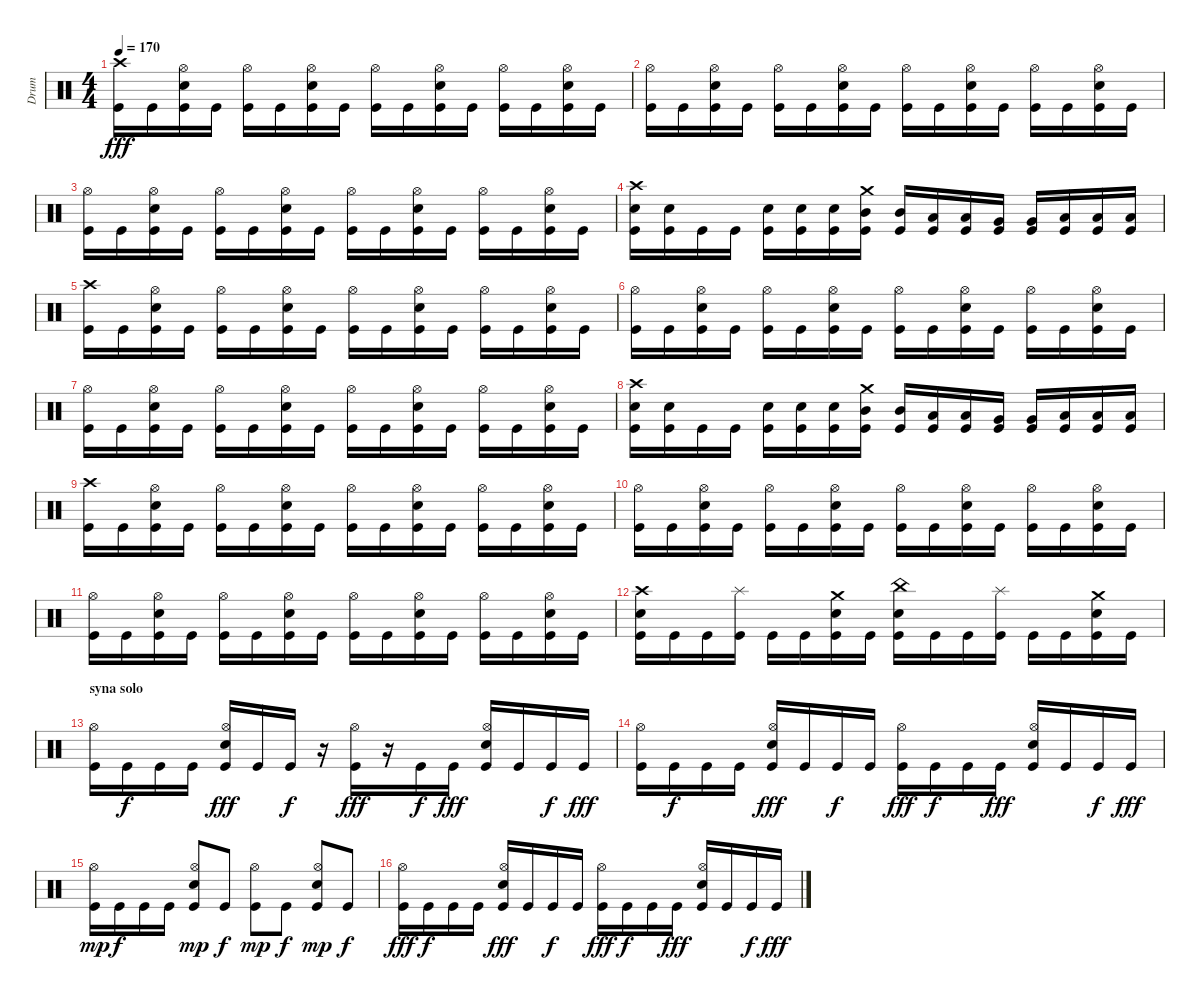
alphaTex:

\track ("Drum" "Drum") {instrument percussion}
\staff {score}
\articulation defaults
\ts (4 4)
\tempo 170
\clef neutral
\ks c
("Crash high (hit)" "Kick (hit)").16{dy fff} "Kick (hit)".16 ("Hi-Hat (open)" "Snare (hit) 2" "Kick (hit)").16 "Kick (hit)".16 ("Hi-Hat (open)" "Kick (hit)").16 "Kick (hit)".16 ("Hi-Hat (open)" "Snare (hit) 2" "Kick (hit)").16 "Kick (hit)".16 ("Hi-Hat (open)" "Kick (hit)").16 "Kick (hit)".16 ("Hi-Hat (open)" "Snare (hit) 2" "Kick (hit)").16 "Kick (hit)".16 ("Hi-Hat (open)" "Kick (hit)").16 "Kick (hit)".16 ("Hi-Hat (open)" "Snare (hit) 2" "Kick (hit)").16 "Kick (hit)".16 |
("Hi-Hat (open)" "Kick (hit)").16 "Kick (hit)".16 ("Hi-Hat (open)" "Snare (hit) 2" "Kick (hit)").16 "Kick (hit)".16 ("Hi-Hat (open)" "Kick (hit)").16 "Kick (hit)".16 ("Hi-Hat (open)" "Snare (hit) 2" "Kick (hit)").16 "Kick (hit)".16 ("Hi-Hat (open)" "Kick (hit)").16 "Kick (hit)".16 ("Hi-Hat (open)" "Snare (hit) 2" "Kick (hit)").16 "Kick (hit)".16 ("Hi-Hat (open)" "Kick (hit)").16 "Kick (hit)".16 ("Hi-Hat (open)" "Snare (hit) 2" "Kick (hit)").16 "Kick (hit)".16 |
("Hi-Hat (open)" "Kick (hit)").16 "Kick (hit)".16 ("Hi-Hat (open)" "Snare (hit) 2" "Kick (hit)").16 "Kick (hit)".16 ("Hi-Hat (open)" "Kick (hit)").16 "Kick (hit)".16 ("Hi-Hat (open)" "Snare (hit) 2" "Kick (hit)").16 "Kick (hit)".16 ("Hi-Hat (open)" "Kick (hit)").16 "Kick (hit)".16 ("Hi-Hat (open)" "Snare (hit) 2" "Kick (hit)").16 "Kick (hit)".16 ("Hi-Hat (open)" "Kick (hit)").16 "Kick (hit)".16 ("Hi-Hat (open)" "Snare (hit) 2" "Kick (hit)").16 "Kick (hit)".16 |
("Crash high (hit)" "Snare (hit) 2" "Kick (hit)").16 ("Snare (hit) 2" "Kick (hit)").16 "Kick (hit)".16 "Kick (hit)".16 ("Snare (hit) 2" "Kick (hit)").16 ("Snare (hit) 2" "Kick (hit)").16 ("Snare (hit) 2" "Kick (hit)").16 ("Mid Tom (hit)" "Crash medium (hit)" "Kick (hit)").16 ("Mid Tom (hit)" "Kick (hit)").16 ("Low Tom (hit)" "Kick (hit)").16 ("Low Tom (hit)" "Kick (hit)").16 ("Very Low Tom (hit)" "Kick (hit)").16 ("Very Low Tom (hit)" "Kick (hit)").16 ("Low Floor Tom (hit)" "Kick (hit)").16 ("Low Floor Tom (hit)" "Kick (hit)").16 ("Low Floor Tom (hit)" "Kick (hit)").16 |
("Crash high (hit)" "Kick (hit)").16 "Kick (hit)".16 ("Hi-Hat (open)" "Snare (hit) 2" "Kick (hit)").16 "Kick (hit)".16 ("Hi-Hat (open)" "Kick (hit)").16 "Kick (hit)".16 ("Hi-Hat (open)" "Snare (hit) 2" "Kick (hit)").16 "Kick (hit)".16 ("Hi-Hat (open)" "Kick (hit)").16 "Kick (hit)".16 ("Hi-Hat (open)" "Snare (hit) 2" "Kick (hit)").16 "Kick (hit)".16 ("Hi-Hat (open)" "Kick (hit)").16 "Kick (hit)".16 ("Hi-Hat (open)" "Snare (hit) 2" "Kick (hit)").16 "Kick (hit)".16 |
("Hi-Hat (open)" "Kick (hit)").16 "Kick (hit)".16 ("Hi-Hat (open)" "Snare (hit) 2" "Kick (hit)").16 "Kick (hit)".16 ("Hi-Hat (open)" "Kick (hit)").16 "Kick (hit)".16 ("Hi-Hat (open)" "Snare (hit) 2" "Kick (hit)").16 "Kick (hit)".16 ("Hi-Hat (open)" "Kick (hit)").16 "Kick (hit)".16 ("Hi-Hat (open)" "Snare (hit) 2" "Kick (hit)").16 "Kick (hit)".16 ("Hi-Hat (open)" "Kick (hit)").16 "Kick (hit)".16 ("Hi-Hat (open)" "Snare (hit) 2" "Kick (hit)").16 "Kick (hit)".16 |
("Hi-Hat (open)" "Kick (hit)").16 "Kick (hit)".16 ("Hi-Hat (open)" "Snare (hit) 2" "Kick (hit)").16 "Kick (hit)".16 ("Hi-Hat (open)" "Kick (hit)").16 "Kick (hit)".16 ("Hi-Hat (open)" "Snare (hit) 2" "Kick (hit)").16 "Kick (hit)".16 ("Hi-Hat (open)" "Kick (hit)").16 "Kick (hit)".16 ("Hi-Hat (open)" "Snare (hit) 2" "Kick (hit)").16 "Kick (hit)".16 ("Hi-Hat (open)" "Kick (hit)").16 "Kick (hit)".16 ("Hi-Hat (open)" "Snare (hit) 2" "Kick (hit)").16 "Kick (hit)".16 |
("Crash high (hit)" "Snare (hit) 2" "Kick (hit)").16 ("Snare (hit) 2" "Kick (hit)").16 "Kick (hit)".16 "Kick (hit)".16 ("Snare (hit) 2" "Kick (hit)").16 ("Snare (hit) 2" "Kick (hit)").16 ("Snare (hit) 2" "Kick (hit)").16 ("Mid Tom (hit)" "Crash medium (hit)" "Kick (hit)").16 ("Mid Tom (hit)" "Kick (hit)").16 ("Low Tom (hit)" "Kick (hit)").16 ("Low Tom (hit)" "Kick (hit)").16 ("Very Low Tom (hit)" "Kick (hit)").16 ("Very Low Tom (hit)" "Kick (hit)").16 ("Low Floor Tom (hit)" "Kick (hit)").16 ("Low Floor Tom (hit)" "Kick (hit)").16 ("Low Floor Tom (hit)" "Kick (hit)").16 |
("Crash high (hit)" "Kick (hit)").16 "Kick (hit)".16 ("Hi-Hat (open)" "Snare (hit) 2" "Kick (hit)").16 "Kick (hit)".16 ("Hi-Hat (open)" "Kick (hit)").16 "Kick (hit)".16 ("Hi-Hat (open)" "Snare (hit) 2" "Kick (hit)").16 "Kick (hit)".16 ("Hi-Hat (open)" "Kick (hit)").16 "Kick (hit)".16 ("Hi-Hat (open)" "Snare (hit) 2" "Kick (hit)").16 "Kick (hit)".16 ("Hi-Hat (open)" "Kick (hit)").16 "Kick (hit)".16 ("Hi-Hat (open)" "Snare (hit) 2" "Kick (hit)").16 "Kick (hit)".16 |
("Hi-Hat (open)" "Kick (hit)").16 "Kick (hit)".16 ("Hi-Hat (open)" "Snare (hit) 2" "Kick (hit)").16 "Kick (hit)".16 ("Hi-Hat (open)" "Kick (hit)").16 "Kick (hit)".16 ("Hi-Hat (open)" "Snare (hit) 2" "Kick (hit)").16 "Kick (hit)".16 ("Hi-Hat (open)" "Kick (hit)").16 "Kick (hit)".16 ("Hi-Hat (open)" "Snare (hit) 2" "Kick (hit)").16 "Kick (hit)".16 ("Hi-Hat (open)" "Kick (hit)").16 "Kick (hit)".16 ("Hi-Hat (open)" "Snare (hit) 2" "Kick (hit)").16 "Kick (hit)".16 |
("Hi-Hat (open)" "Kick (hit)").16 "Kick (hit)".16 ("Hi-Hat (open)" "Snare (hit) 2" "Kick (hit)").16 "Kick (hit)".16 ("Hi-Hat (open)" "Kick (hit)").16 "Kick (hit)".16 ("Hi-Hat (open)" "Snare (hit) 2" "Kick (hit)").16 "Kick (hit)".16 ("Hi-Hat (open)" "Kick (hit)").16 "Kick (hit)".16 ("Hi-Hat (open)" "Snare (hit) 2" "Kick (hit)").16 "Kick (hit)".16 ("Hi-Hat (open)" "Kick (hit)").16 "Kick (hit)".16 ("Hi-Hat (open)" "Snare (hit) 2" "Kick (hit)").16 "Kick (hit)".16 |
("Crash high (hit)" "Snare (hit) 2" "Kick (hit)").16 "Kick (hit)".16 "Kick (hit)".16 ("Splash (hit)" "Kick (hit)").16 "Kick (hit)".16 "Kick (hit)".16 ("Crash medium (hit)" "Snare (hit) 2" "Kick (hit)").16 "Kick (hit)".16 ("China (hit)" "Snare (hit) 2" "Kick (hit)").16 "Kick (hit)".16 "Kick (hit)".16 ("Splash (hit)" "Kick (hit)").16 "Kick (hit)".16 "Kick (hit)".16 ("Crash medium (hit)" "Snare (hit) 2" "Kick (hit)").16 "Kick (hit)".16 |
\section ("" "syna solo")
("Hi-Hat (open)" "Kick (hit)").16 "Kick (hit)".16{dy f} "Kick (hit)".16 "Kick (hit)".16 ("Hi-Hat (open)" "Snare (hit) 2" "Kick (hit)").16{dy fff} "Kick (hit)".16 "Kick (hit)".16{dy f} r.16 ("Hi-Hat (open)" "Kick (hit)").16{dy fff} r.16 "Kick (hit)".16{dy f} "Kick (hit)".16{dy fff} ("Hi-Hat (open)" "Snare (hit) 2" "Kick (hit)").16 "Kick (hit)".16 "Kick (hit)".16{dy f} "Kick (hit)".16{dy fff} |
("Hi-Hat (open)" "Kick (hit)").16 "Kick (hit)".16{dy f} "Kick (hit)".16 "Kick (hit)".16 ("Hi-Hat (open)" "Snare (hit) 2" "Kick (hit)").16{dy fff} "Kick (hit)".16 "Kick (hit)".16{dy f} "Kick (hit)".16 ("Hi-Hat (open)" "Kick (hit)").16{dy fff} "Kick (hit)".16{dy f} "Kick (hit)".16 "Kick (hit)".16{dy fff} ("Hi-Hat (open)" "Snare (hit) 2" "Kick (hit)").16 "Kick (hit)".16 "Kick (hit)".16{dy f} "Kick (hit)".16{dy fff} |
("Hi-Hat (open)" "Kick (hit)").16{dy mp} "Kick (hit)".16{dy f} "Kick (hit)".16 "Kick (hit)".16 ("Hi-Hat (open)" "Snare (hit) 2" "Kick (hit)").8{dy mp} "Kick (hit)".8{dy f} ("Hi-Hat (open)" "Kick (hit)").8{dy mp} "Kick (hit)".8{dy f} ("Hi-Hat (open)" "Snare (hit) 2" "Kick (hit)").8{dy mp} "Kick (hit)".8{dy f} |
("Hi-Hat (open)" "Kick (hit)").16{dy fff} "Kick (hit)".16{dy f} "Kick (hit)".16 "Kick (hit)".16 ("Hi-Hat (open)" "Snare (hit) 2" "Kick (hit)").16{dy fff} "Kick (hit)".16 "Kick (hit)".16{dy f} "Kick (hit)".16 ("Hi-Hat (open)" "Kick (hit)").16{dy fff} "Kick (hit)".16{dy f} "Kick (hit)".16 "Kick (hit)".16{dy fff} ("Hi-Hat (open)" "Snare (hit) 2" "Kick (hit)").16 "Kick (hit)".16 "Kick (hit)".16{dy f} "Kick (hit)".16{dy fff}
